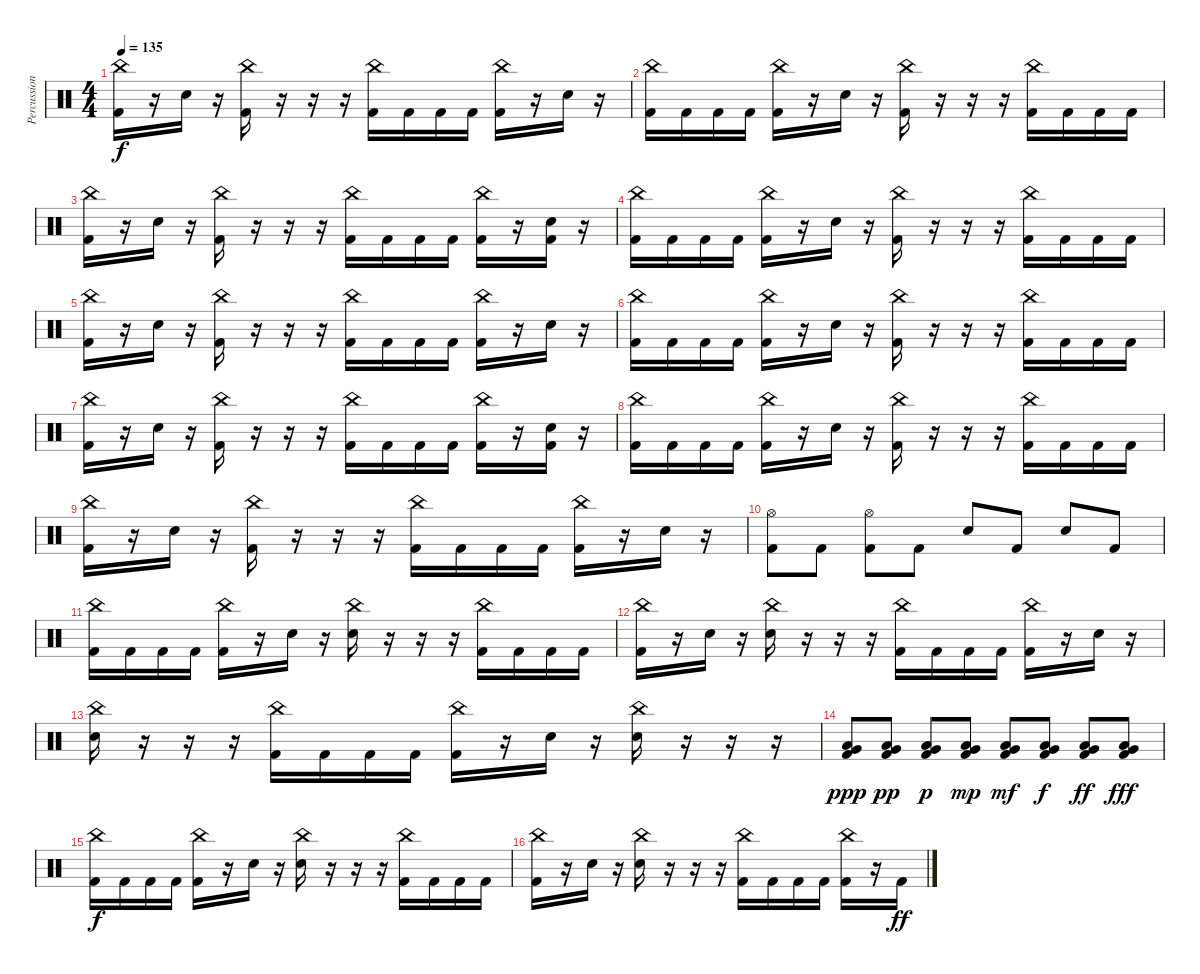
\track ("Percussion" "Percussion") {instrument percussion}
\staff {score}
\articulation defaults
\ts (4 4)
\tempo 135
\clef neutral
\ks c
("China (hit)" "Kick (hit) 2").16{dy f} r.16 "Snare (hit) 2".16 r.16 ("China (hit)" "Kick (hit) 2").16 r.16 r.16 r.16 ("China (hit)" "Kick (hit) 2").16 "Kick (hit) 2".16 "Kick (hit) 2".16 "Kick (hit) 2".16 ("China (hit)" "Kick (hit) 2").16 r.16 "Snare (hit) 2".16 r.16 |
("China (hit)" "Kick (hit) 2").16 "Kick (hit) 2".16 "Kick (hit) 2".16 "Kick (hit) 2".16 ("China (hit)" "Kick (hit) 2").16 r.16 "Snare (hit) 2".16 r.16 ("China (hit)" "Kick (hit) 2").16 r.16 r.16 r.16 ("China (hit)" "Kick (hit) 2").16 "Kick (hit) 2".16 "Kick (hit) 2".16 "Kick (hit) 2".16 |
("China (hit)" "Kick (hit) 2").16 r.16 "Snare (hit) 2".16 r.16 ("China (hit)" "Kick (hit) 2").16 r.16 r.16 r.16 ("China (hit)" "Kick (hit) 2").16 "Kick (hit) 2".16 "Kick (hit) 2".16 "Kick (hit) 2".16 ("China (hit)" "Kick (hit) 2").16 r.16 ("Snare (hit) 2" "Kick (hit) 2").16 r.16 |
("China (hit)" "Kick (hit) 2").16 "Kick (hit) 2".16 "Kick (hit) 2".16 "Kick (hit) 2".16 ("China (hit)" "Kick (hit) 2").16 r.16 "Snare (hit) 2".16 r.16 ("China (hit)" "Kick (hit) 2").16 r.16 r.16 r.16 ("China (hit)" "Kick (hit) 2").16 "Kick (hit) 2".16 "Kick (hit) 2".16 "Kick (hit) 2".16 |
("China (hit)" "Kick (hit) 2").16 r.16 "Snare (hit) 2".16 r.16 ("China (hit)" "Kick (hit) 2").16 r.16 r.16 r.16 ("China (hit)" "Kick (hit) 2").16 "Kick (hit) 2".16 "Kick (hit) 2".16 "Kick (hit) 2".16 ("China (hit)" "Kick (hit) 2").16 r.16 "Snare (hit) 2".16 r.16 |
("China (hit)" "Kick (hit) 2").16 "Kick (hit) 2".16 "Kick (hit) 2".16 "Kick (hit) 2".16 ("China (hit)" "Kick (hit) 2").16 r.16 "Snare (hit) 2".16 r.16 ("China (hit)" "Kick (hit) 2").16 r.16 r.16 r.16 ("China (hit)" "Kick (hit) 2").16 "Kick (hit) 2".16 "Kick (hit) 2".16 "Kick (hit) 2".16 |
("China (hit)" "Kick (hit) 2").16 r.16 "Snare (hit) 2".16 r.16 ("China (hit)" "Kick (hit) 2").16 r.16 r.16 r.16 ("China (hit)" "Kick (hit) 2").16 "Kick (hit) 2".16 "Kick (hit) 2".16 "Kick (hit) 2".16 ("China (hit)" "Kick (hit) 2").16 r.16 ("Snare (hit) 2" "Kick (hit) 2").16 r.16 |
("China (hit)" "Kick (hit) 2").16 "Kick (hit) 2".16 "Kick (hit) 2".16 "Kick (hit) 2".16 ("China (hit)" "Kick (hit) 2").16 r.16 "Snare (hit) 2".16 r.16 ("China (hit)" "Kick (hit) 2").16 r.16 r.16 r.16 ("China (hit)" "Kick (hit) 2").16 "Kick (hit) 2".16 "Kick (hit) 2".16 "Kick (hit) 2".16 |
("China (hit)" "Kick (hit) 2").16 r.16 "Snare (hit) 2".16 r.16 ("China (hit)" "Kick (hit) 2").16 r.16 r.16 r.16 ("China (hit)" "Kick (hit) 2").16 "Kick (hit) 2".16 "Kick (hit) 2".16 "Kick (hit) 2".16 ("China (hit)" "Kick (hit) 2").16 r.16 "Snare (hit) 2".16 r.16 |
("Hi-Hat (open)" "Kick (hit) 2").8 "Kick (hit) 2".8 ("Hi-Hat (open)" "Kick (hit) 2").8 "Kick (hit) 2".8 "Snare (hit) 2".8 "Kick (hit) 2".8 "Snare (hit) 2".8 "Kick (hit) 2".8 |
("China (hit)" "Kick (hit) 2").16 "Kick (hit) 2".16 "Kick (hit) 2".16 "Kick (hit) 2".16 ("China (hit)" "Kick (hit) 2").16 r.16 "Snare (hit) 2".16 r.16 ("China (hit)" "Snare (hit) 2").16 r.16 r.16 r.16 ("China (hit)" "Kick (hit) 2").16 "Kick (hit) 2".16 "Kick (hit) 2".16 "Kick (hit) 2".16 |
("China (hit)" "Kick (hit) 2").16 r.16 "Snare (hit) 2".16 r.16 ("China (hit)" "Snare (hit) 2").16 r.16 r.16 r.16 ("China (hit)" "Kick (hit) 2").16 "Kick (hit) 2".16 "Kick (hit) 2".16 "Kick (hit) 2".16 ("China (hit)" "Kick (hit) 2").16 r.16 "Snare (hit) 2".16 r.16 |
("China (hit)" "Snare (hit) 2").16 r.16 r.16 r.16 ("China (hit)" "Kick (hit) 2").16 "Kick (hit) 2".16 "Kick (hit) 2".16 "Kick (hit) 2".16 ("China (hit)" "Kick (hit) 2").16 r.16 "Snare (hit) 2".16 r.16 ("China (hit)" "Snare (hit) 2").16 r.16 r.16 r.16 |
("Very Low Tom (hit)" "Low Floor Tom (hit)" "Kick (hit) 2").8{dy ppp} ("Very Low Tom (hit)" "Low Floor Tom (hit)" "Kick (hit) 2").8{dy pp} ("Very Low Tom (hit)" "Low Floor Tom (hit)" "Kick (hit) 2").8{dy p} ("Very Low Tom (hit)" "Low Floor Tom (hit)" "Kick (hit) 2").8{dy mp} ("Very Low Tom (hit)" "Low Floor Tom (hit)" "Kick (hit) 2").8{dy mf} ("Very Low Tom (hit)" "Low Floor Tom (hit)" "Kick (hit) 2").8{dy f} ("Very Low Tom (hit)" "Low Floor Tom (hit)" "Kick (hit) 2").8{dy ff} ("Very Low Tom (hit)" "Low Floor Tom (hit)" "Kick (hit) 2").8{dy fff} |
("China (hit)" "Kick (hit) 2").16{dy f} "Kick (hit) 2".16 "Kick (hit) 2".16 "Kick (hit) 2".16 ("China (hit)" "Kick (hit) 2").16 r.16 "Snare (hit) 2".16 r.16 ("China (hit)" "Snare (hit) 2").16 r.16 r.16 r.16 ("China (hit)" "Kick (hit) 2").16 "Kick (hit) 2".16 "Kick (hit) 2".16 "Kick (hit) 2".16 |
("China (hit)" "Kick (hit) 2").16 r.16 "Snare (hit) 2".16 r.16 ("China (hit)" "Snare (hit) 2").16 r.16 r.16 r.16 ("China (hit)" "Kick (hit) 2").16 "Kick (hit) 2".16 "Kick (hit) 2".16 "Kick (hit) 2".16 ("China (hit)" "Kick (hit) 2").16 r.16 "Kick (hit) 2".16{dy ff}
